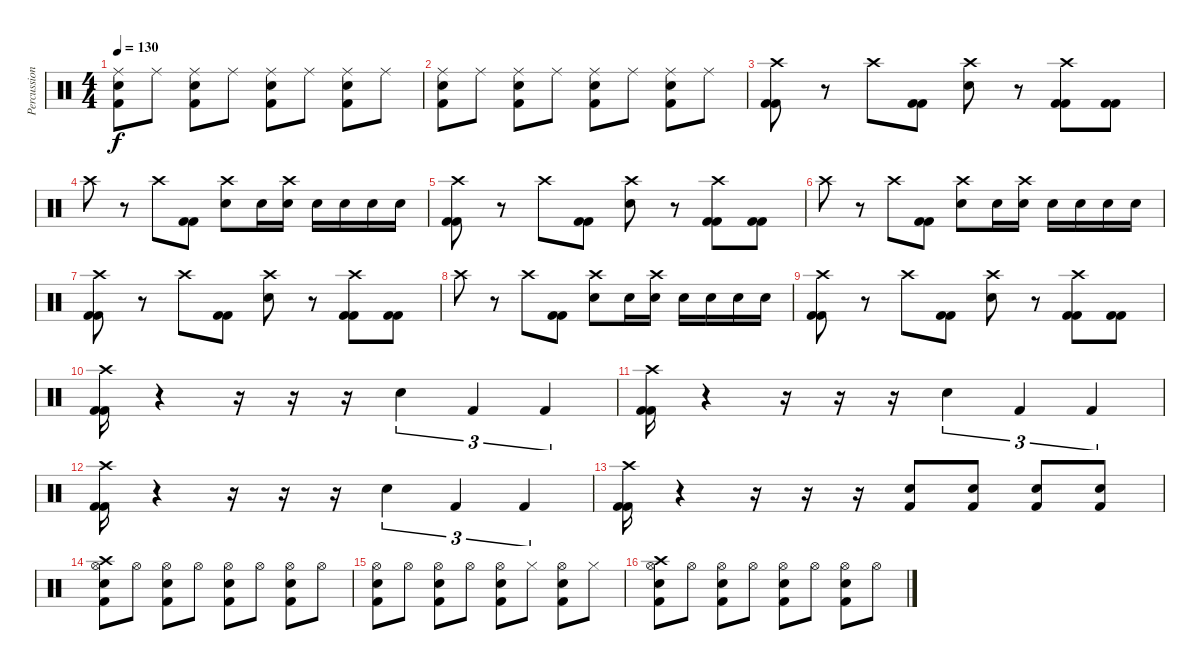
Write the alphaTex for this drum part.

\track ("Percussion" "Percussion") {instrument percussion}
\staff {score}
\articulation defaults
\ts (4 4)
\tempo 130
\clef neutral
\ks c
("Ride (middle)" "Electric Snare (hit)" "Kick (hit) 2").8{dy f} "Ride (middle)".8 ("Ride (middle)" "Electric Snare (hit)" "Kick (hit) 2").8 "Ride (middle)".8 ("Ride (middle)" "Electric Snare (hit)" "Kick (hit) 2").8 "Ride (middle)".8 ("Ride (middle)" "Electric Snare (hit)" "Kick (hit) 2").8 "Ride (middle)".8 |
("Ride (middle)" "Electric Snare (hit)" "Kick (hit) 2").8 "Ride (middle)".8 ("Ride (middle)" "Electric Snare (hit)" "Kick (hit) 2").8 "Ride (middle)".8 ("Ride (middle)" "Electric Snare (hit)" "Kick (hit) 2").8 "Ride (middle)".8 ("Ride (middle)" "Electric Snare (hit)" "Kick (hit) 2").8 "Ride (middle)".8 |
("Crash high (hit)" "Kick (hit) 2" "Kick (hit) 2").8 r.8 "Crash high (hit)".8 ("Kick (hit) 2" "Kick (hit) 2").8 ("Crash high (hit)" "Electric Snare (hit)").8 r.8 ("Crash high (hit)" "Kick (hit) 2" "Kick (hit) 2").8 ("Kick (hit) 2" "Kick (hit) 2").8 |
"Crash high (hit)".8 r.8 "Crash high (hit)".8 ("Kick (hit) 2" "Kick (hit) 2").8 ("Crash high (hit)" "Electric Snare (hit)").8 "Electric Snare (hit)".16 ("Crash high (hit)" "Electric Snare (hit)").16 "Electric Snare (hit)".16 "Electric Snare (hit)".16 "Electric Snare (hit)".16 "Electric Snare (hit)".16 |
("Crash high (hit)" "Kick (hit) 2" "Kick (hit) 2").8 r.8 "Crash high (hit)".8 ("Kick (hit) 2" "Kick (hit) 2").8 ("Crash high (hit)" "Electric Snare (hit)").8 r.8 ("Crash high (hit)" "Kick (hit) 2" "Kick (hit) 2").8 ("Kick (hit) 2" "Kick (hit) 2").8 |
"Crash high (hit)".8 r.8 "Crash high (hit)".8 ("Kick (hit) 2" "Kick (hit) 2").8 ("Crash high (hit)" "Electric Snare (hit)").8 "Electric Snare (hit)".16 ("Crash high (hit)" "Electric Snare (hit)").16 "Electric Snare (hit)".16 "Electric Snare (hit)".16 "Electric Snare (hit)".16 "Electric Snare (hit)".16 |
("Crash high (hit)" "Kick (hit) 2" "Kick (hit) 2").8 r.8 "Crash high (hit)".8 ("Kick (hit) 2" "Kick (hit) 2").8 ("Crash high (hit)" "Electric Snare (hit)").8 r.8 ("Crash high (hit)" "Kick (hit) 2" "Kick (hit) 2").8 ("Kick (hit) 2" "Kick (hit) 2").8 |
"Crash high (hit)".8 r.8 "Crash high (hit)".8 ("Kick (hit) 2" "Kick (hit) 2").8 ("Crash high (hit)" "Electric Snare (hit)").8 "Electric Snare (hit)".16 ("Crash high (hit)" "Electric Snare (hit)").16 "Electric Snare (hit)".16 "Electric Snare (hit)".16 "Electric Snare (hit)".16 "Electric Snare (hit)".16 |
("Crash high (hit)" "Kick (hit) 2" "Kick (hit) 2").8 r.8 "Crash high (hit)".8 ("Kick (hit) 2" "Kick (hit) 2").8 ("Crash high (hit)" "Electric Snare (hit)").8 r.8 ("Crash high (hit)" "Kick (hit) 2" "Kick (hit) 2").8 ("Kick (hit) 2" "Kick (hit) 2").8 |
("Crash high (hit)" "Kick (hit) 2" "Kick (hit) 2").16 r.4 r.16 r.16 r.16 "Electric Snare (hit)".4{tu (3 2)} "Kick (hit) 2".4{tu (3 2)} "Kick (hit) 2".4{tu (3 2)} |
("Crash high (hit)" "Kick (hit) 2" "Kick (hit) 2").16 r.4 r.16 r.16 r.16 "Electric Snare (hit)".4{tu (3 2)} "Kick (hit) 2".4{tu (3 2)} "Kick (hit) 2".4{tu (3 2)} |
("Crash high (hit)" "Kick (hit) 2" "Kick (hit) 2").16 r.4 r.16 r.16 r.16 "Electric Snare (hit)".4{tu (3 2)} "Kick (hit) 2".4{tu (3 2)} "Kick (hit) 2".4{tu (3 2)} |
("Crash high (hit)" "Kick (hit) 2" "Kick (hit) 2").16 r.4 r.16 r.16 r.16 ("Electric Snare (hit)" "Kick (hit) 2").8 ("Electric Snare (hit)" "Kick (hit) 2").8 ("Electric Snare (hit)" "Kick (hit) 2").8 ("Electric Snare (hit)" "Kick (hit) 2").8 |
("Hi-Hat (open)" "Crash high (hit)" "Electric Snare (hit)" "Kick (hit) 2").8 "Hi-Hat (open)".8 ("Hi-Hat (open)" "Electric Snare (hit)" "Kick (hit) 2").8 "Hi-Hat (open)".8 ("Hi-Hat (open)" "Electric Snare (hit)" "Kick (hit) 2").8 "Hi-Hat (open)".8 ("Hi-Hat (open)" "Electric Snare (hit)" "Kick (hit) 2").8 "Hi-Hat (open)".8 |
("Hi-Hat (open)" "Electric Snare (hit)" "Kick (hit) 2").8 "Hi-Hat (open)".8 ("Hi-Hat (open)" "Electric Snare (hit)" "Kick (hit) 2").8 "Hi-Hat (open)".8 ("Hi-Hat (open)" "Electric Snare (hit)" "Kick (hit) 2").8 "Hi-Hat (closed)".8 ("Hi-Hat (open)" "Electric Snare (hit)" "Kick (hit) 2").8 "Hi-Hat (closed)".8 |
("Hi-Hat (open)" "Crash high (hit)" "Electric Snare (hit)" "Kick (hit) 2").8 "Hi-Hat (open)".8 ("Hi-Hat (open)" "Electric Snare (hit)" "Kick (hit) 2").8 "Hi-Hat (open)".8 ("Hi-Hat (open)" "Electric Snare (hit)" "Kick (hit) 2").8 "Hi-Hat (open)".8 ("Hi-Hat (open)" "Electric Snare (hit)" "Kick (hit) 2").8 "Hi-Hat (open)".8
